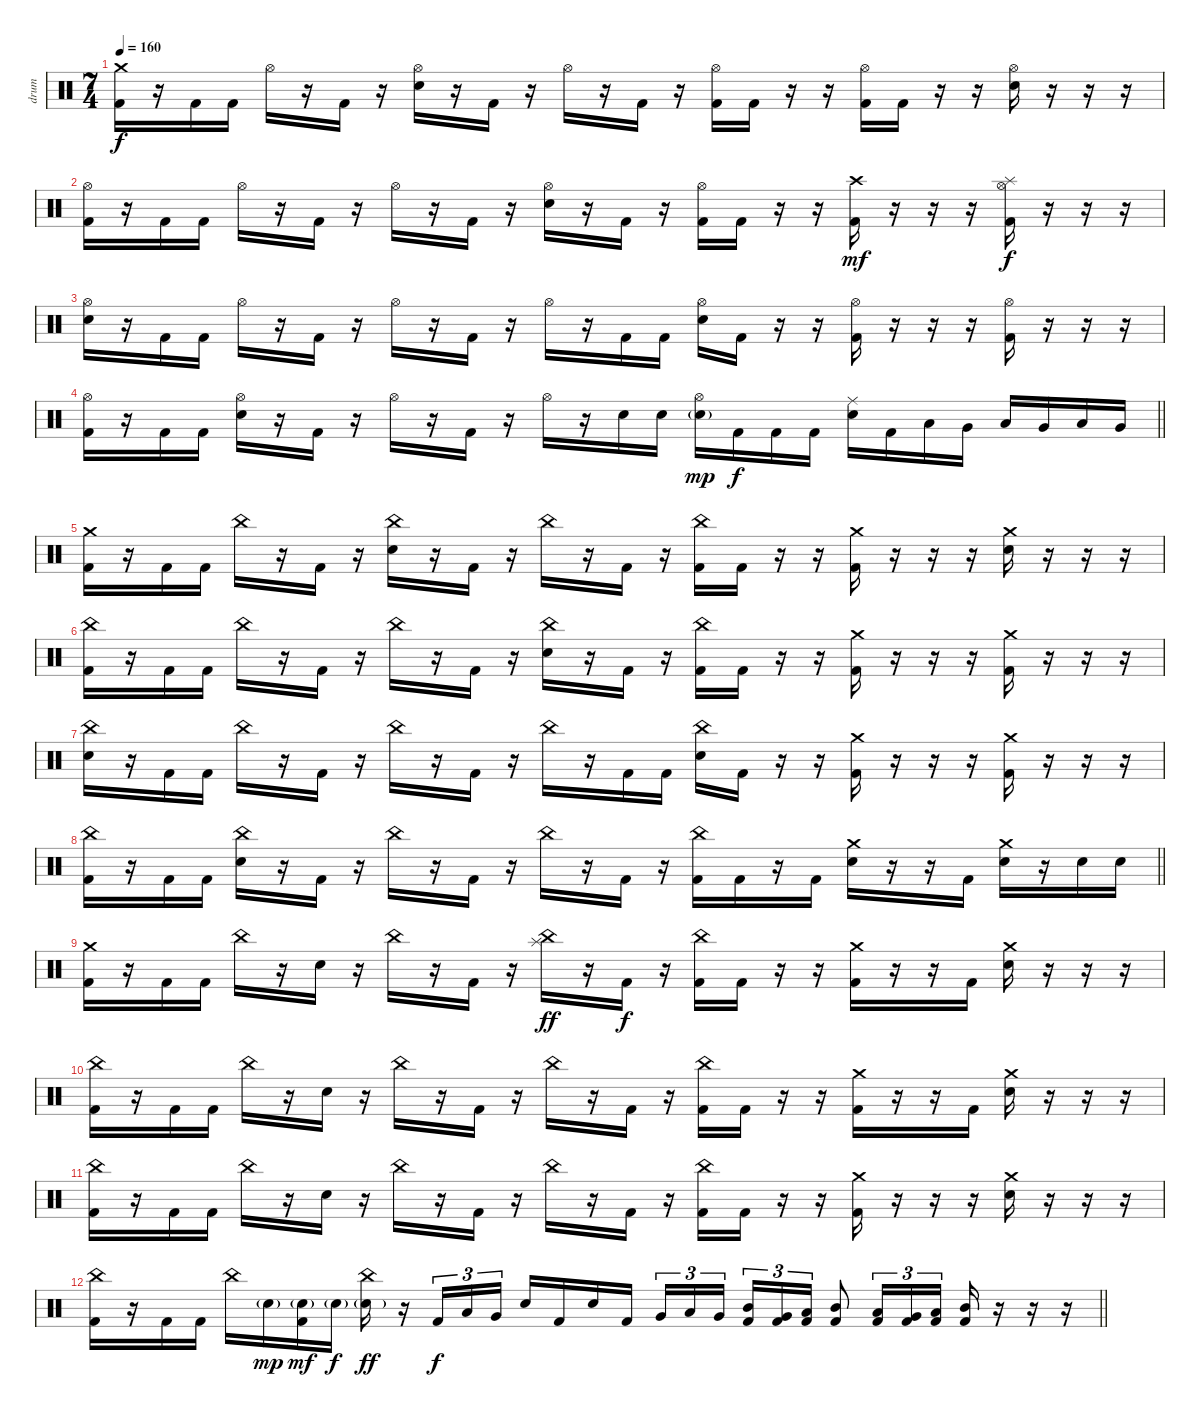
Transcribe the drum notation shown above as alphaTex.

\track ("drum" "drum") {instrument percussion}
\staff {score}
\articulation defaults
\ts (7 4)
\section ("" "")
\tempo 160
\clef neutral
\ks c
("Crash medium (hit)" "Kick (hit) 2").16{dy f} r.16 "Kick (hit) 2".16 "Kick (hit) 2".16 "Hi-Hat (open)".16 r.16 "Kick (hit) 2".16 r.16 ("Hi-Hat (open)" "Electric Snare (hit)").16 r.16 "Kick (hit) 2".16 r.16 "Hi-Hat (open)".16 r.16 "Kick (hit) 2".16 r.16 ("Hi-Hat (open)" "Kick (hit) 2").16 "Kick (hit) 2".16 r.16 r.16 ("Hi-Hat (open)" "Kick (hit) 2").16 "Kick (hit) 2".16 r.16 r.16 ("Hi-Hat (open)" "Electric Snare (hit)").16 r.16 r.16 r.16 |
("Hi-Hat (open)" "Kick (hit) 2").16 r.16 "Kick (hit) 2".16 "Kick (hit) 2".16 "Hi-Hat (open)".16 r.16 "Kick (hit) 2".16 r.16 "Hi-Hat (open)".16 r.16 "Kick (hit) 2".16 r.16 ("Hi-Hat (open)" "Electric Snare (hit)").16 r.16 "Kick (hit) 2".16 r.16 ("Hi-Hat (open)" "Kick (hit) 2").16 "Kick (hit) 2".16 r.16 r.16 ("Crash high (hit)" "Kick (hit) 2").16{dy mf} r.16 r.16 r.16 ("Splash (hit)" "Hi-Hat (open)" "Kick (hit) 2").16{dy f} r.16 r.16 r.16 |
("Hi-Hat (open)" "Electric Snare (hit)").16 r.16 "Kick (hit) 2".16 "Kick (hit) 2".16 "Hi-Hat (open)".16 r.16 "Kick (hit) 2".16 r.16 "Hi-Hat (open)".16 r.16 "Kick (hit) 2".16 r.16 "Hi-Hat (open)".16 r.16 "Kick (hit) 2".16 "Kick (hit) 2".16 ("Hi-Hat (open)" "Electric Snare (hit)").16 "Kick (hit) 2".16 r.16 r.16 ("Hi-Hat (open)" "Kick (hit) 2").16 r.16 r.16 r.16 ("Hi-Hat (open)" "Kick (hit) 2").16 r.16 r.16 r.16 |
\barLineRight lightlight
("Hi-Hat (open)" "Kick (hit) 2").16 r.16 "Kick (hit) 2".16 "Kick (hit) 2".16 ("Hi-Hat (open)" "Electric Snare (hit)").16 r.16 "Kick (hit) 2".16 r.16 "Hi-Hat (open)".16 r.16 "Kick (hit) 2".16 r.16 "Hi-Hat (open)".16 r.16 "Electric Snare (hit)".16 "Electric Snare (hit)".16 ("Hi-Hat (open)" "Electric Snare (hit)"{g}).16{dy mp} "Kick (hit) 2".16{dy f} "Kick (hit) 2".16 "Kick (hit) 2".16 ("Ride (middle)" "Electric Snare (hit)").16 "Kick (hit) 2".16 "Low Tom (hit)".16 "Very Low Tom (hit)".16 "Low Floor Tom (hit)".16 "Very Low Tom (hit)".16 "Low Tom (hit)".16 "Very Low Tom (hit)".16 |
\section ("" "")
("Crash medium (hit)" "Kick (hit) 2").16 r.16 "Kick (hit) 2".16 "Kick (hit) 2".16 "China (hit)".16 r.16 "Kick (hit) 2".16 r.16 ("China (hit)" "Electric Snare (hit)").16 r.16 "Kick (hit) 2".16 r.16 "China (hit)".16 r.16 "Kick (hit) 2".16 r.16 ("China (hit)" "Kick (hit) 2").16 "Kick (hit) 2".16 r.16 r.16 ("Crash medium (hit)" "Kick (hit) 2").16 r.16 r.16 r.16 ("Crash medium (hit)" "Electric Snare (hit)").16 r.16 r.16 r.16 |
("China (hit)" "Kick (hit) 2").16 r.16 "Kick (hit) 2".16 "Kick (hit) 2".16 "China (hit)".16 r.16 "Kick (hit) 2".16 r.16 "China (hit)".16 r.16 "Kick (hit) 2".16 r.16 ("China (hit)" "Electric Snare (hit)").16 r.16 "Kick (hit) 2".16 r.16 ("China (hit)" "Kick (hit) 2").16 "Kick (hit) 2".16 r.16 r.16 ("Crash medium (hit)" "Kick (hit) 2").16 r.16 r.16 r.16 ("Crash medium (hit)" "Kick (hit) 2").16 r.16 r.16 r.16 |
("China (hit)" "Electric Snare (hit)").16 r.16 "Kick (hit) 2".16 "Kick (hit) 2".16 "China (hit)".16 r.16 "Kick (hit) 2".16 r.16 "China (hit)".16 r.16 "Kick (hit) 2".16 r.16 "China (hit)".16 r.16 "Kick (hit) 2".16 "Kick (hit) 2".16 ("China (hit)" "Electric Snare (hit)").16 "Kick (hit) 2".16 r.16 r.16 ("Crash medium (hit)" "Kick (hit) 2").16 r.16 r.16 r.16 ("Crash medium (hit)" "Kick (hit) 2").16 r.16 r.16 r.16 |
\barLineRight lightlight
("China (hit)" "Kick (hit) 2").16 r.16 "Kick (hit) 2".16 "Kick (hit) 2".16 ("China (hit)" "Electric Snare (hit)").16 r.16 "Kick (hit) 2".16 r.16 "China (hit)".16 r.16 "Kick (hit) 2".16 r.16 "China (hit)".16 r.16 "Kick (hit) 2".16 r.16 ("China (hit)" "Kick (hit) 2").16 "Kick (hit) 2".16 r.16 "Kick (hit) 2".16 ("Crash medium (hit)" "Electric Snare (hit)").16 r.16 r.16 "Kick (hit) 2".16 ("Crash medium (hit)" "Electric Snare (hit)").16 r.16 "Electric Snare (hit)".16 "Electric Snare (hit)".16 |
("Crash medium (hit)" "Kick (hit) 2").16 r.16 "Kick (hit) 2".16 "Kick (hit) 2".16 "China (hit)".16 r.16 "Electric Snare (hit)".16 r.16 "China (hit)".16 r.16 "Kick (hit) 2".16 r.16 ("China (hit)" "Splash (hit)").16{dy ff} r.16 "Kick (hit) 2".16{dy f} r.16 ("China (hit)" "Kick (hit) 2").16 "Kick (hit) 2".16 r.16 r.16 ("Crash medium (hit)" "Kick (hit) 2").16 r.16 r.16 "Kick (hit) 2".16 ("Crash medium (hit)" "Electric Snare (hit)").16 r.16 r.16 r.16 |
("China (hit)" "Kick (hit) 2").16 r.16 "Kick (hit) 2".16 "Kick (hit) 2".16 "China (hit)".16 r.16 "Electric Snare (hit)".16 r.16 "China (hit)".16 r.16 "Kick (hit) 2".16 r.16 "China (hit)".16 r.16 "Kick (hit) 2".16 r.16 ("China (hit)" "Kick (hit) 2").16 "Kick (hit) 2".16 r.16 r.16 ("Crash medium (hit)" "Kick (hit) 2").16 r.16 r.16 "Kick (hit) 2".16 ("Crash medium (hit)" "Electric Snare (hit)").16 r.16 r.16 r.16 |
("China (hit)" "Kick (hit) 2").16 r.16 "Kick (hit) 2".16 "Kick (hit) 2".16 "China (hit)".16 r.16 "Electric Snare (hit)".16 r.16 "China (hit)".16 r.16 "Kick (hit) 2".16 r.16 "China (hit)".16 r.16 "Kick (hit) 2".16 r.16 ("China (hit)" "Kick (hit) 2").16 "Kick (hit) 2".16 r.16 r.16 ("Crash medium (hit)" "Kick (hit) 2").16 r.16 r.16 r.16 ("Crash medium (hit)" "Electric Snare (hit)").16 r.16 r.16 r.16 |
\barLineRight lightlight
("China (hit)" "Kick (hit) 2").16 r.16 "Kick (hit) 2".16 "Kick (hit) 2".16 "China (hit)".16 "Electric Snare (hit)"{g}.16{dy mp} ("Electric Snare (hit)"{g} "Kick (hit) 2").16{dy mf} "Electric Snare (hit)"{g}.16{dy f} ("China (hit)" "Electric Snare (hit)"{g}).16{dy ff} r.16 "Kick (hit) 2".16{tu (3 2) dy f} "Low Tom (hit)".16{tu (3 2)} "Very Low Tom (hit)".16{tu (3 2)} "Electric Snare (hit)".16 "Kick (hit) 2".16 "Electric Snare (hit)".16 "Kick (hit) 2".16 "Very Low Tom (hit)".16{tu (3 2)} "Low Tom (hit)".16{tu (3 2)} "Very Low Tom (hit)".16{tu (3 2) beam splitsecondary} ("Mid Tom (hit)" "Kick (hit) 2").16{tu (3 2)} ("Very Low Tom (hit)" "Kick (hit) 2").16{tu (3 2)} ("Low Tom (hit)" "Kick (hit) 2").16{tu (3 2)} ("Mid Tom (hit)" "Kick (hit) 2").8 ("Low Floor Tom (hit)" "Kick (hit) 2").16{tu (3 2)} ("Very Low Tom (hit)" "Kick (hit) 2").16{tu (3 2)} ("Low Tom (hit)" "Kick (hit) 2").16{tu (3 2)} ("Mid Tom (hit)" "Kick (hit) 2").16 r.16 r.16 r.16
